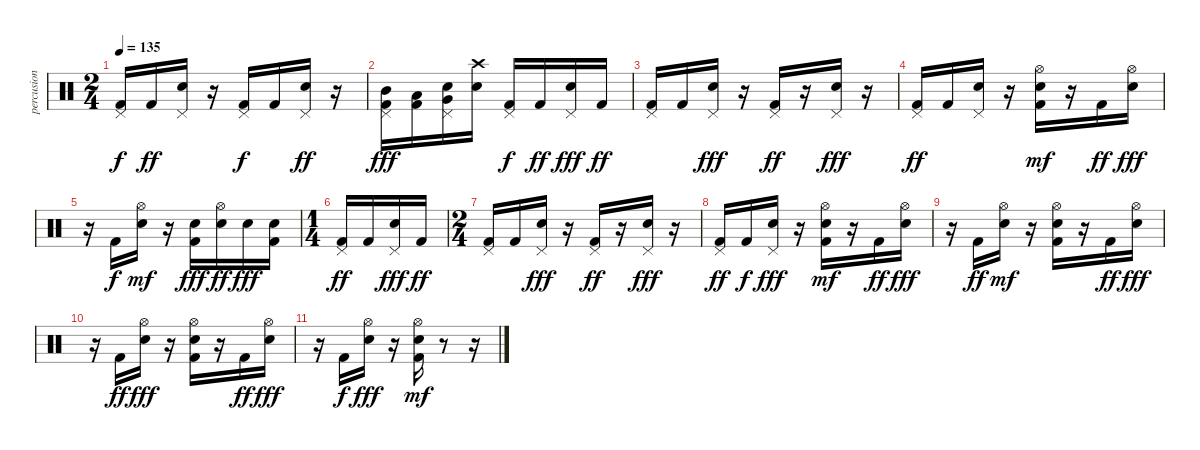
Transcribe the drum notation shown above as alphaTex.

\track ("percusion" "percusion") {instrument percussion}
\staff {score}
\articulation defaults
\ts (2 4)
\tempo 135
\clef neutral
\ks c
("Kick (hit) 2" "Pedal Hi-Hat (hit)").16{dy f} "Kick (hit) 2".16{dy ff} ("Electric Snare (hit)" "Pedal Hi-Hat (hit)").16 r.16 ("Kick (hit) 2" "Pedal Hi-Hat (hit)").16{dy f} "Kick (hit) 2".16 ("Electric Snare (hit)" "Pedal Hi-Hat (hit)").16{dy ff} r.16 |
("Kick (hit) 2" "Mid Tom (hit)" "Pedal Hi-Hat (hit)").16{dy fff} ("Kick (hit) 2" "Low Tom (hit)").16 ("Electric Snare (hit)" "Very Low Tom (hit)" "Pedal Hi-Hat (hit)").16 ("Electric Snare (hit)" "Crash high (hit)").16 ("Kick (hit) 2" "Pedal Hi-Hat (hit)").16{dy f} "Kick (hit) 2".16{dy ff} ("Electric Snare (hit)" "Pedal Hi-Hat (hit)").16{dy fff} "Kick (hit) 2".16{dy ff} |
("Kick (hit) 2" "Pedal Hi-Hat (hit)").16 "Kick (hit) 2".16 ("Electric Snare (hit)" "Pedal Hi-Hat (hit)").16{dy fff} r.16 ("Kick (hit) 2" "Pedal Hi-Hat (hit)").16{dy ff} r.16 ("Electric Snare (hit)" "Pedal Hi-Hat (hit)").16{dy fff} r.16 |
("Kick (hit) 2" "Pedal Hi-Hat (hit)").16{dy ff} "Kick (hit) 2".16 ("Electric Snare (hit)" "Pedal Hi-Hat (hit)").16 r.16 ("Kick (hit) 2" "Electric Snare (hit)" "Hi-Hat (open)").16{dy mf} r.16 "Kick (hit) 2".16{dy ff} ("Electric Snare (hit)" "Hi-Hat (open)").16{dy fff} |
r.16 "Kick (hit) 2".16{dy f} ("Electric Snare (hit)" "Hi-Hat (open)").16{dy mf} r.16 ("Kick (hit) 2" "Electric Snare (hit)").16{dy fff} ("Electric Snare (hit)" "Hi-Hat (open)").16{dy ff} "Electric Snare (hit)".16{dy fff} ("Kick (hit) 2" "Electric Snare (hit)").16 |
\ts (1 4)
("Kick (hit) 2" "Pedal Hi-Hat (hit)").16{dy ff} "Kick (hit) 2".16 ("Electric Snare (hit)" "Pedal Hi-Hat (hit)").16{dy fff} "Kick (hit) 2".16{dy ff} |
\ts (2 4)
("Kick (hit) 2" "Pedal Hi-Hat (hit)").16 "Kick (hit) 2".16 ("Electric Snare (hit)" "Pedal Hi-Hat (hit)").16{dy fff} r.16 ("Kick (hit) 2" "Pedal Hi-Hat (hit)").16{dy ff} r.16 ("Electric Snare (hit)" "Pedal Hi-Hat (hit)").16{dy fff} r.16 |
("Kick (hit) 2" "Pedal Hi-Hat (hit)").16{dy ff} "Kick (hit) 2".16{dy f} ("Electric Snare (hit)" "Pedal Hi-Hat (hit)").16{dy fff} r.16 ("Kick (hit) 2" "Electric Snare (hit)" "Hi-Hat (open)").16{dy mf} r.16 "Kick (hit) 2".16{dy ff} ("Electric Snare (hit)" "Hi-Hat (open)").16{dy fff} |
r.16 "Kick (hit) 2".16{dy ff} ("Electric Snare (hit)" "Hi-Hat (open)").16{dy mf} r.16 ("Kick (hit) 2" "Electric Snare (hit)" "Hi-Hat (open)").16 r.16 "Kick (hit) 2".16{dy ff} ("Electric Snare (hit)" "Hi-Hat (open)").16{dy fff} |
r.16 "Kick (hit) 2".16{dy ff} ("Electric Snare (hit)" "Hi-Hat (open)").16{dy fff} r.16 ("Kick (hit) 2" "Electric Snare (hit)" "Hi-Hat (open)").16 r.16 "Kick (hit) 2".16{dy ff} ("Electric Snare (hit)" "Hi-Hat (open)").16{dy fff} |
r.16 "Kick (hit) 2".16{dy f} ("Electric Snare (hit)" "Hi-Hat (open)").16{dy fff} r.16 ("Kick (hit) 2" "Electric Snare (hit)" "Hi-Hat (open)").16{dy mf} r.8 r.16
